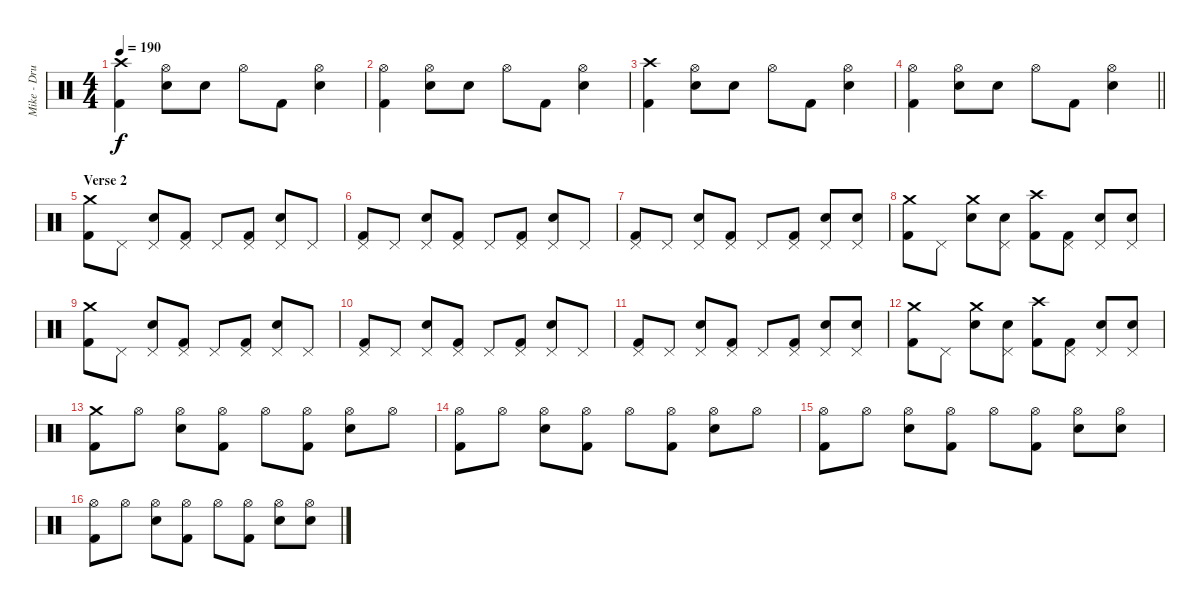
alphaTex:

\track ("Mike - Drums" "Mike - Dru") {instrument percussion}
\staff {score}
\articulation defaults
\ts (4 4)
\tempo 190
\clef neutral
\ks c
("Crash high (hit)" "Kick (hit) 2").4{dy f} ("Hi-Hat (open)" "Electric Snare (hit)").8 "Electric Snare (hit)".8 "Hi-Hat (open)".8 "Kick (hit) 2".8 ("Hi-Hat (open)" "Electric Snare (hit)").4 |
("Hi-Hat (open)" "Kick (hit) 2").4 ("Hi-Hat (open)" "Electric Snare (hit)").8 "Electric Snare (hit)".8 "Hi-Hat (open)".8 "Kick (hit) 2".8 ("Hi-Hat (open)" "Electric Snare (hit)").4 |
("Crash high (hit)" "Kick (hit) 2").4 ("Hi-Hat (open)" "Electric Snare (hit)").8 "Electric Snare (hit)".8 "Hi-Hat (open)".8 "Kick (hit) 2".8 ("Hi-Hat (open)" "Electric Snare (hit)").4 |
\barLineRight lightlight
("Hi-Hat (open)" "Kick (hit) 2").4 ("Hi-Hat (open)" "Electric Snare (hit)").8 "Electric Snare (hit)".8 "Hi-Hat (open)".8 "Kick (hit) 2".8 ("Hi-Hat (open)" "Electric Snare (hit)").4 |
\section ("" "Verse 2")
("Crash medium (hit)" "Kick (hit) 2").8 "Pedal Hi-Hat (hit)".8 ("Pedal Hi-Hat (hit)" "Electric Snare (hit)").8 ("Pedal Hi-Hat (hit)" "Kick (hit) 2").8 "Pedal Hi-Hat (hit)".8 ("Pedal Hi-Hat (hit)" "Kick (hit) 2").8 ("Pedal Hi-Hat (hit)" "Electric Snare (hit)").8 "Pedal Hi-Hat (hit)".8 |
("Pedal Hi-Hat (hit)" "Kick (hit) 2").8 "Pedal Hi-Hat (hit)".8 ("Pedal Hi-Hat (hit)" "Electric Snare (hit)").8 ("Pedal Hi-Hat (hit)" "Kick (hit) 2").8 "Pedal Hi-Hat (hit)".8 ("Pedal Hi-Hat (hit)" "Kick (hit) 2").8 ("Pedal Hi-Hat (hit)" "Electric Snare (hit)").8 "Pedal Hi-Hat (hit)".8 |
("Pedal Hi-Hat (hit)" "Kick (hit) 2").8 "Pedal Hi-Hat (hit)".8 ("Pedal Hi-Hat (hit)" "Electric Snare (hit)").8 ("Pedal Hi-Hat (hit)" "Kick (hit) 2").8 "Pedal Hi-Hat (hit)".8 ("Pedal Hi-Hat (hit)" "Kick (hit) 2").8 ("Pedal Hi-Hat (hit)" "Electric Snare (hit)").8 ("Pedal Hi-Hat (hit)" "Electric Snare (hit)").8 |
("Crash medium (hit)" "Kick (hit) 2").8 "Pedal Hi-Hat (hit)".8 ("Crash medium (hit)" "Electric Snare (hit)").8 ("Pedal Hi-Hat (hit)" "Electric Snare (hit)").8 ("Crash high (hit)" "Kick (hit) 2").8 ("Pedal Hi-Hat (hit)" "Kick (hit) 2").8 ("Pedal Hi-Hat (hit)" "Electric Snare (hit)").8 ("Pedal Hi-Hat (hit)" "Electric Snare (hit)").8 |
("Crash medium (hit)" "Kick (hit) 2").8 "Pedal Hi-Hat (hit)".8 ("Pedal Hi-Hat (hit)" "Electric Snare (hit)").8 ("Pedal Hi-Hat (hit)" "Kick (hit) 2").8 "Pedal Hi-Hat (hit)".8 ("Pedal Hi-Hat (hit)" "Kick (hit) 2").8 ("Pedal Hi-Hat (hit)" "Electric Snare (hit)").8 "Pedal Hi-Hat (hit)".8 |
("Pedal Hi-Hat (hit)" "Kick (hit) 2").8 "Pedal Hi-Hat (hit)".8 ("Pedal Hi-Hat (hit)" "Electric Snare (hit)").8 ("Pedal Hi-Hat (hit)" "Kick (hit) 2").8 "Pedal Hi-Hat (hit)".8 ("Pedal Hi-Hat (hit)" "Kick (hit) 2").8 ("Pedal Hi-Hat (hit)" "Electric Snare (hit)").8 "Pedal Hi-Hat (hit)".8 |
("Pedal Hi-Hat (hit)" "Kick (hit) 2").8 "Pedal Hi-Hat (hit)".8 ("Pedal Hi-Hat (hit)" "Electric Snare (hit)").8 ("Pedal Hi-Hat (hit)" "Kick (hit) 2").8 "Pedal Hi-Hat (hit)".8 ("Pedal Hi-Hat (hit)" "Kick (hit) 2").8 ("Pedal Hi-Hat (hit)" "Electric Snare (hit)").8 ("Pedal Hi-Hat (hit)" "Electric Snare (hit)").8 |
("Crash medium (hit)" "Kick (hit) 2").8 "Pedal Hi-Hat (hit)".8 ("Crash medium (hit)" "Electric Snare (hit)").8 ("Pedal Hi-Hat (hit)" "Electric Snare (hit)").8 ("Crash high (hit)" "Kick (hit) 2").8 ("Pedal Hi-Hat (hit)" "Kick (hit) 2").8 ("Pedal Hi-Hat (hit)" "Electric Snare (hit)").8 ("Pedal Hi-Hat (hit)" "Electric Snare (hit)").8 |
("Crash medium (hit)" "Kick (hit) 2").8 "Hi-Hat (open)".8 ("Hi-Hat (open)" "Electric Snare (hit)").8 ("Hi-Hat (open)" "Kick (hit) 2").8 "Hi-Hat (open)".8 ("Hi-Hat (open)" "Kick (hit) 2").8 ("Hi-Hat (open)" "Electric Snare (hit)").8 "Hi-Hat (open)".8 |
("Hi-Hat (open)" "Kick (hit) 2").8 "Hi-Hat (open)".8 ("Hi-Hat (open)" "Electric Snare (hit)").8 ("Hi-Hat (open)" "Kick (hit) 2").8 "Hi-Hat (open)".8 ("Hi-Hat (open)" "Kick (hit) 2").8 ("Hi-Hat (open)" "Electric Snare (hit)").8 "Hi-Hat (open)".8 |
("Hi-Hat (open)" "Kick (hit) 2").8 "Hi-Hat (open)".8 ("Hi-Hat (open)" "Electric Snare (hit)").8 ("Hi-Hat (open)" "Kick (hit) 2").8 "Hi-Hat (open)".8 ("Hi-Hat (open)" "Kick (hit) 2").8 ("Hi-Hat (open)" "Electric Snare (hit)").8 ("Hi-Hat (open)" "Electric Snare (hit)").8 |
("Hi-Hat (open)" "Kick (hit) 2").8 "Hi-Hat (open)".8 ("Hi-Hat (open)" "Electric Snare (hit)").8 ("Hi-Hat (open)" "Kick (hit) 2").8 "Hi-Hat (open)".8 ("Hi-Hat (open)" "Kick (hit) 2").8 ("Hi-Hat (open)" "Electric Snare (hit)").8 ("Hi-Hat (open)" "Electric Snare (hit)").8
